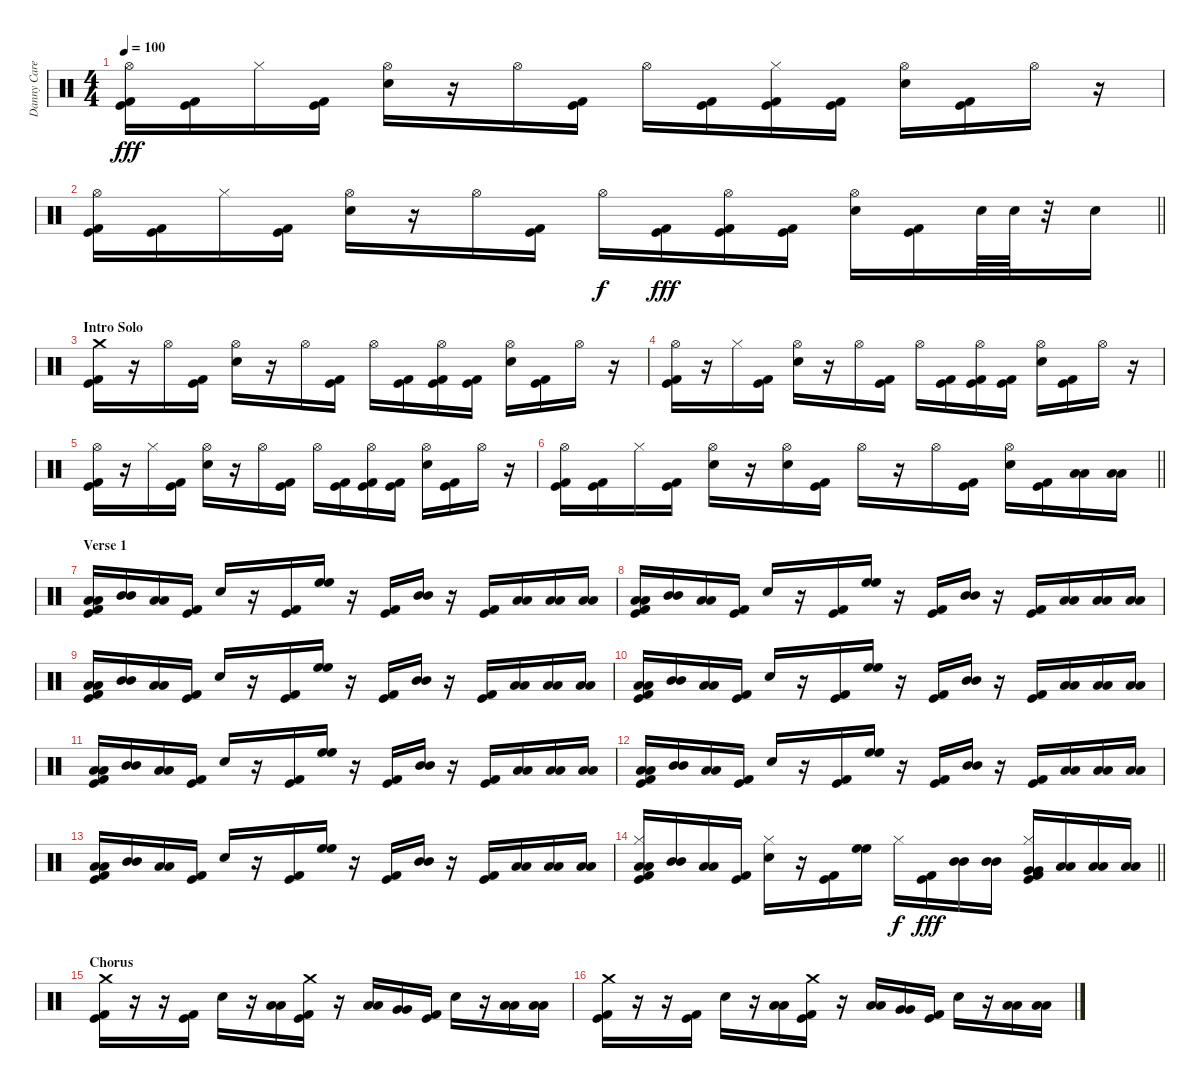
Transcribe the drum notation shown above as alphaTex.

\track ("Danny Carey - Percussion" "Danny Care") {instrument percussion}
\staff {score}
\articulation defaults
\ts (4 4)
\tempo 100
\clef neutral
\ks c
("Hi-Hat (open)" "Kick (hit)" "Kick (hit) 2").16{dy fff} ("Kick (hit)" "Kick (hit) 2").16 "Hi-Hat (closed)".16 ("Kick (hit)" "Kick (hit) 2").16 ("Hi-Hat (open)" "Electric Snare (hit)").16 r.16 "Hi-Hat (open)".16 ("Kick (hit)" "Kick (hit) 2").16 "Hi-Hat (open)".16 ("Kick (hit)" "Kick (hit) 2").16 ("Hi-Hat (closed)" "Kick (hit)" "Kick (hit) 2").16 ("Kick (hit)" "Kick (hit) 2").16 ("Hi-Hat (open)" "Electric Snare (hit)").16 ("Kick (hit)" "Kick (hit) 2").16 "Hi-Hat (open)".16 r.16 |
\barLineRight lightlight
("Hi-Hat (open)" "Kick (hit)" "Kick (hit) 2").16 ("Kick (hit)" "Kick (hit) 2").16 "Hi-Hat (closed)".16 ("Kick (hit)" "Kick (hit) 2").16 ("Hi-Hat (open)" "Electric Snare (hit)").16 r.16 "Hi-Hat (open)".16 ("Kick (hit)" "Kick (hit) 2").16 "Hi-Hat (open)".16{dy f} ("Kick (hit)" "Kick (hit) 2").16{dy fff} ("Hi-Hat (open)" "Kick (hit)" "Kick (hit) 2").16 ("Kick (hit)" "Kick (hit) 2").16 ("Hi-Hat (open)" "Electric Snare (hit)").16 ("Kick (hit)" "Kick (hit) 2").16 "Electric Snare (hit)".64 "Electric Snare (hit)".64 r.32 "Electric Snare (hit)".16 |
\section ("" "Intro Solo")
("Crash medium (hit)" "Kick (hit)" "Kick (hit) 2").16 r.16 "Hi-Hat (open)".16 ("Kick (hit)" "Kick (hit) 2").16 ("Hi-Hat (open)" "Electric Snare (hit)").16 r.16 "Hi-Hat (open)".16 ("Kick (hit)" "Kick (hit) 2").16 "Hi-Hat (open)".16 ("Kick (hit)" "Kick (hit) 2").16 ("Hi-Hat (open)" "Kick (hit)" "Kick (hit) 2").16 ("Kick (hit)" "Kick (hit) 2").16 ("Hi-Hat (open)" "Electric Snare (hit)").16 ("Kick (hit)" "Kick (hit) 2").16 "Hi-Hat (open)".16 r.16 |
("Hi-Hat (open)" "Kick (hit)" "Kick (hit) 2").16 r.16 "Hi-Hat (closed)".16 ("Kick (hit)" "Kick (hit) 2").16 ("Hi-Hat (open)" "Electric Snare (hit)").16 r.16 "Hi-Hat (open)".16 ("Kick (hit)" "Kick (hit) 2").16 "Hi-Hat (open)".16 ("Kick (hit)" "Kick (hit) 2").16 ("Hi-Hat (open)" "Kick (hit)" "Kick (hit) 2").16 ("Kick (hit)" "Kick (hit) 2").16 ("Hi-Hat (open)" "Electric Snare (hit)").16 ("Kick (hit)" "Kick (hit) 2").16 "Hi-Hat (open)".16 r.16 |
("Hi-Hat (open)" "Kick (hit)" "Kick (hit) 2").16 r.16 "Hi-Hat (closed)".16 ("Kick (hit)" "Kick (hit) 2").16 ("Hi-Hat (open)" "Electric Snare (hit)").16 r.16 "Hi-Hat (open)".16 ("Kick (hit)" "Kick (hit) 2").16 "Hi-Hat (open)".16 ("Kick (hit)" "Kick (hit) 2").16 ("Hi-Hat (open)" "Kick (hit)" "Kick (hit) 2").16 ("Kick (hit)" "Kick (hit) 2").16 ("Hi-Hat (open)" "Electric Snare (hit)").16 ("Kick (hit)" "Kick (hit) 2").16 "Hi-Hat (open)".16 r.16 |
\barLineRight lightlight
("Hi-Hat (open)" "Kick (hit)" "Kick (hit) 2").16 ("Kick (hit)" "Kick (hit) 2").16 "Hi-Hat (closed)".16 ("Kick (hit)" "Kick (hit) 2").16 ("Hi-Hat (open)" "Electric Snare (hit)").16 r.16 ("Hi-Hat (open)" "Electric Snare (hit)").16 ("Kick (hit)" "Kick (hit) 2").16 "Hi-Hat (open)".16 r.16 "Hi-Hat (open)".16 ("Kick (hit)" "Kick (hit) 2").16 ("Hi-Hat (open)" "Electric Snare (hit)").16 ("Kick (hit)" "Kick (hit) 2").16 ("Low Tom (hit)" "Low Tom (hit)").16 ("Low Tom (hit)" "Low Tom (hit)").16 |
\section ("" "Verse 1")
("Low Tom (hit)" "Low Tom (hit)" "Kick (hit)" "Kick (hit) 2").16 ("Mid Tom (hit)" "Mid Tom (hit)").16 ("Low Floor Tom (hit)" "Low Floor Tom (hit)").16 ("Kick (hit)" "Kick (hit) 2").16 "Electric Snare (hit)".16 r.16 ("Kick (hit)" "Kick (hit) 2").16 ("High Floor Tom (hit)" "High Floor Tom (hit)").16 r.16 ("Kick (hit)" "Kick (hit) 2").16 ("Mid Tom (hit)" "Mid Tom (hit)").16 r.16 ("Kick (hit)" "Kick (hit) 2").16 ("Low Tom (hit)" "Low Tom (hit)").16 ("Low Tom (hit)" "Low Tom (hit)").16 ("Low Tom (hit)" "Low Tom (hit)").16 |
("Low Tom (hit)" "Low Tom (hit)" "Kick (hit)" "Kick (hit) 2").16 ("Mid Tom (hit)" "Mid Tom (hit)").16 ("Low Floor Tom (hit)" "Low Floor Tom (hit)").16 ("Kick (hit)" "Kick (hit) 2").16 "Electric Snare (hit)".16 r.16 ("Kick (hit)" "Kick (hit) 2").16 ("High Floor Tom (hit)" "High Floor Tom (hit)").16 r.16 ("Kick (hit)" "Kick (hit) 2").16 ("Mid Tom (hit)" "Mid Tom (hit)").16 r.16 ("Kick (hit)" "Kick (hit) 2").16 ("Low Tom (hit)" "Low Tom (hit)").16 ("Low Tom (hit)" "Low Tom (hit)").16 ("Low Tom (hit)" "Low Tom (hit)").16 |
("Low Tom (hit)" "Low Tom (hit)" "Kick (hit)" "Kick (hit) 2").16 ("Mid Tom (hit)" "Mid Tom (hit)").16 ("Low Floor Tom (hit)" "Low Floor Tom (hit)").16 ("Kick (hit)" "Kick (hit) 2").16 "Electric Snare (hit)".16 r.16 ("Kick (hit)" "Kick (hit) 2").16 ("High Floor Tom (hit)" "High Floor Tom (hit)").16 r.16 ("Kick (hit)" "Kick (hit) 2").16 ("Mid Tom (hit)" "Mid Tom (hit)").16 r.16 ("Kick (hit)" "Kick (hit) 2").16 ("Low Tom (hit)" "Low Tom (hit)").16 ("Low Tom (hit)" "Low Tom (hit)").16 ("Low Tom (hit)" "Low Tom (hit)").16 |
("Low Tom (hit)" "Low Tom (hit)" "Kick (hit)" "Kick (hit) 2").16 ("Mid Tom (hit)" "Mid Tom (hit)").16 ("Low Floor Tom (hit)" "Low Floor Tom (hit)").16 ("Kick (hit)" "Kick (hit) 2").16 "Electric Snare (hit)".16 r.16 ("Kick (hit)" "Kick (hit) 2").16 ("High Floor Tom (hit)" "High Floor Tom (hit)").16 r.16 ("Kick (hit)" "Kick (hit) 2").16 ("Mid Tom (hit)" "Mid Tom (hit)").16 r.16 ("Kick (hit)" "Kick (hit) 2").16 ("Low Tom (hit)" "Low Tom (hit)").16 ("Low Tom (hit)" "Low Tom (hit)").16 ("Low Tom (hit)" "Low Tom (hit)").16 |
("Low Tom (hit)" "Low Tom (hit)" "Kick (hit)" "Kick (hit) 2").16 ("Mid Tom (hit)" "Mid Tom (hit)").16 ("Low Floor Tom (hit)" "Low Floor Tom (hit)").16 ("Kick (hit)" "Kick (hit) 2").16 "Electric Snare (hit)".16 r.16 ("Kick (hit)" "Kick (hit) 2").16 ("High Floor Tom (hit)" "High Floor Tom (hit)").16 r.16 ("Kick (hit)" "Kick (hit) 2").16 ("Mid Tom (hit)" "Mid Tom (hit)").16 r.16 ("Kick (hit)" "Kick (hit) 2").16 ("Low Tom (hit)" "Low Tom (hit)").16 ("Low Tom (hit)" "Low Tom (hit)").16 ("Low Tom (hit)" "Low Tom (hit)").16 |
("Low Tom (hit)" "Low Tom (hit)" "Kick (hit)" "Kick (hit) 2").16 ("Mid Tom (hit)" "Mid Tom (hit)").16 ("Low Floor Tom (hit)" "Low Floor Tom (hit)").16 ("Kick (hit)" "Kick (hit) 2").16 "Electric Snare (hit)".16 r.16 ("Kick (hit)" "Kick (hit) 2").16 ("High Floor Tom (hit)" "High Floor Tom (hit)").16 r.16 ("Kick (hit)" "Kick (hit) 2").16 ("Mid Tom (hit)" "Mid Tom (hit)").16 r.16 ("Kick (hit)" "Kick (hit) 2").16 ("Low Tom (hit)" "Low Tom (hit)").16 ("Low Tom (hit)" "Low Tom (hit)").16 ("Low Tom (hit)" "Low Tom (hit)").16 |
("Low Tom (hit)" "Low Tom (hit)" "Kick (hit)" "Kick (hit) 2").16 ("Mid Tom (hit)" "Mid Tom (hit)").16 ("Low Floor Tom (hit)" "Low Floor Tom (hit)").16 ("Kick (hit)" "Kick (hit) 2").16 "Electric Snare (hit)".16 r.16 ("Kick (hit)" "Kick (hit) 2").16 ("High Floor Tom (hit)" "High Floor Tom (hit)").16 r.16 ("Kick (hit)" "Kick (hit) 2").16 ("Mid Tom (hit)" "Mid Tom (hit)").16 r.16 ("Kick (hit)" "Kick (hit) 2").16 ("Low Tom (hit)" "Low Tom (hit)").16 ("Low Tom (hit)" "Low Tom (hit)").16 ("Low Tom (hit)" "Low Tom (hit)").16 |
\barLineRight lightlight
("Hi-Hat (closed)" "Low Tom (hit)" "Low Tom (hit)" "Kick (hit)" "Kick (hit) 2").16 ("Mid Tom (hit)" "Mid Tom (hit)").16 ("Low Floor Tom (hit)" "Low Floor Tom (hit)").16 ("Kick (hit)" "Kick (hit) 2").16 ("Hi-Hat (closed)" "Electric Snare (hit)").16 r.16 ("Kick (hit)" "Kick (hit) 2").16 ("High Floor Tom (hit)" "High Floor Tom (hit)").16 "Hi-Hat (closed)".16{dy f} ("Kick (hit)" "Kick (hit) 2").16{dy fff} ("Mid Tom (hit)" "Mid Tom (hit)").16 ("Mid Tom (hit)" "Mid Tom (hit)").16 ("Hi-Hat (closed)" "Very Low Tom (hit)" "Very Low Tom (hit)" "Kick (hit)" "Kick (hit) 2").16 ("Low Tom (hit)" "Low Tom (hit)").16 ("Low Tom (hit)" "Low Tom (hit)").16 ("Low Tom (hit)" "Low Tom (hit)").16 |
\section ("" "Chorus")
("Crash medium (hit)" "Kick (hit)" "Kick (hit) 2").16 r.16 r.16 ("Kick (hit)" "Kick (hit) 2").16 "Electric Snare (hit)".16 r.16 ("Low Tom (hit)" "Low Tom (hit)").16 ("Crash medium (hit)" "Kick (hit)" "Kick (hit) 2").16 r.16 ("Low Tom (hit)" "Low Tom (hit)").16 ("Very Low Tom (hit)" "Very Low Tom (hit)").16 ("Kick (hit)" "Kick (hit) 2").16 "Electric Snare (hit)".16 r.16 ("Low Tom (hit)" "Low Tom (hit)").16 ("Low Tom (hit)" "Low Tom (hit)").16 |
("Crash medium (hit)" "Kick (hit)" "Kick (hit) 2").16 r.16 r.16 ("Kick (hit)" "Kick (hit) 2").16 "Electric Snare (hit)".16 r.16 ("Low Tom (hit)" "Low Tom (hit)").16 ("Crash medium (hit)" "Kick (hit)" "Kick (hit) 2").16 r.16 ("Low Tom (hit)" "Low Tom (hit)").16 ("Very Low Tom (hit)" "Very Low Tom (hit)").16 ("Kick (hit)" "Kick (hit) 2").16 "Electric Snare (hit)".16 r.16 ("Low Tom (hit)" "Low Tom (hit)").16 ("Low Tom (hit)" "Low Tom (hit)").16
